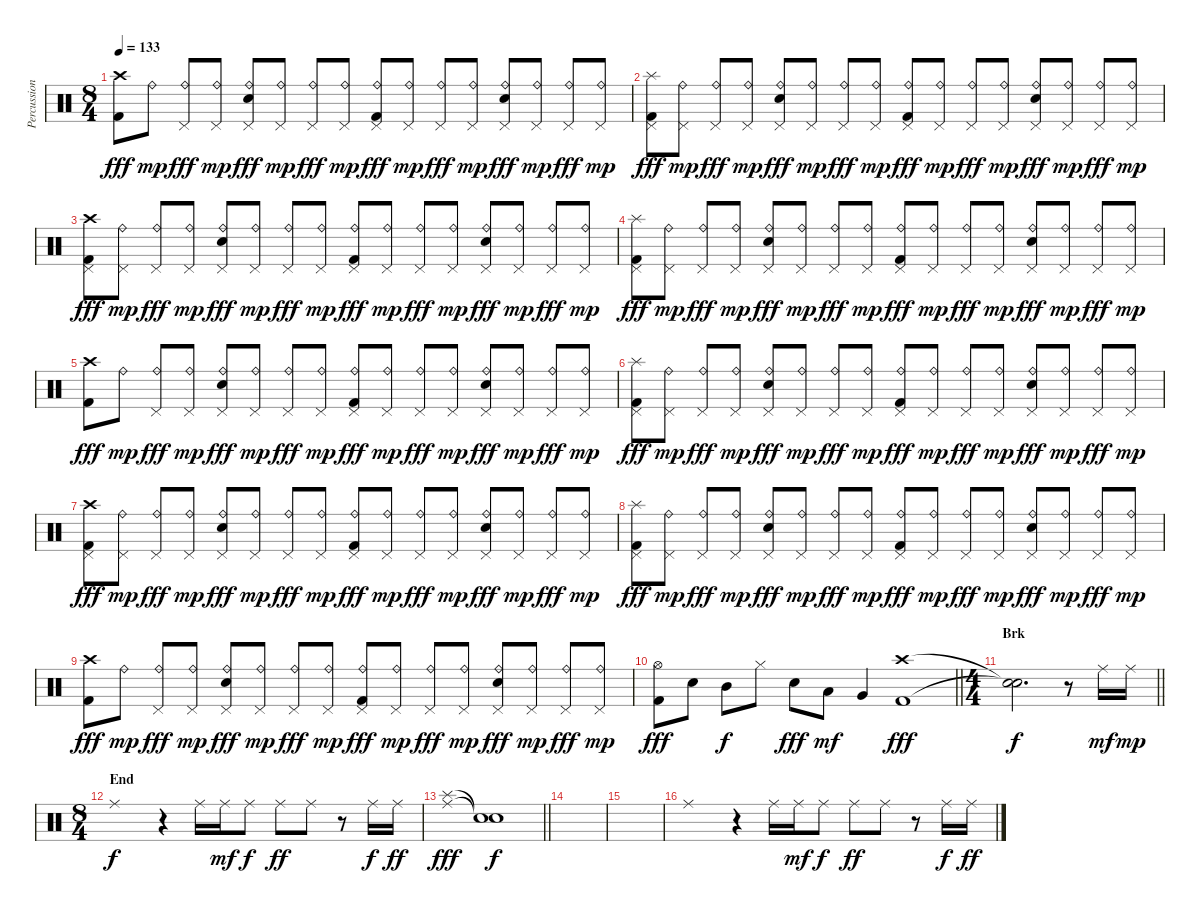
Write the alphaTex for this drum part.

\track ("Percussion" "Percussion") {instrument percussion}
\staff {score}
\articulation defaults
\ts (8 4)
\tempo 133
\clef neutral
\ks c
("Crash high (hit)" "Kick (hit) 2").8{dy fff} "Ride (bell)".8{dy mp} ("Ride (bell)" "Pedal Hi-Hat (hit)").8{dy fff} ("Ride (bell)" "Pedal Hi-Hat (hit)").8{dy mp} ("Ride (bell)" "Pedal Hi-Hat (hit)" "Electric Snare (hit)").8{dy fff} ("Ride (bell)" "Pedal Hi-Hat (hit)").8{dy mp} ("Ride (bell)" "Pedal Hi-Hat (hit)").8{dy fff} ("Ride (bell)" "Pedal Hi-Hat (hit)").8{dy mp} ("Ride (bell)" "Pedal Hi-Hat (hit)" "Kick (hit) 2").8{dy fff} ("Ride (bell)" "Pedal Hi-Hat (hit)").8{dy mp} ("Ride (bell)" "Pedal Hi-Hat (hit)").8{dy fff} ("Ride (bell)" "Pedal Hi-Hat (hit)").8{dy mp} ("Ride (bell)" "Pedal Hi-Hat (hit)" "Electric Snare (hit)").8{dy fff} ("Ride (bell)" "Pedal Hi-Hat (hit)").8{dy mp} ("Ride (bell)" "Pedal Hi-Hat (hit)").8{dy fff} ("Ride (bell)" "Pedal Hi-Hat (hit)").8{dy mp} |
("Splash (hit)" "Pedal Hi-Hat (hit)" "Kick (hit) 2").8{dy fff} ("Ride (bell)" "Pedal Hi-Hat (hit)").8{dy mp} ("Ride (bell)" "Pedal Hi-Hat (hit)").8{dy fff} ("Ride (bell)" "Pedal Hi-Hat (hit)").8{dy mp} ("Ride (bell)" "Pedal Hi-Hat (hit)" "Electric Snare (hit)").8{dy fff} ("Ride (bell)" "Pedal Hi-Hat (hit)").8{dy mp} ("Ride (bell)" "Pedal Hi-Hat (hit)").8{dy fff} ("Ride (bell)" "Pedal Hi-Hat (hit)").8{dy mp} ("Ride (bell)" "Pedal Hi-Hat (hit)" "Kick (hit) 2").8{dy fff} ("Ride (bell)" "Pedal Hi-Hat (hit)").8{dy mp} ("Ride (bell)" "Pedal Hi-Hat (hit)").8{dy fff} ("Ride (bell)" "Pedal Hi-Hat (hit)").8{dy mp} ("Ride (bell)" "Pedal Hi-Hat (hit)" "Electric Snare (hit)").8{dy fff} ("Ride (bell)" "Pedal Hi-Hat (hit)").8{dy mp} ("Ride (bell)" "Pedal Hi-Hat (hit)").8{dy fff} ("Ride (bell)" "Pedal Hi-Hat (hit)").8{dy mp} |
("Crash high (hit)" "Pedal Hi-Hat (hit)" "Kick (hit) 2").8{dy fff} ("Ride (bell)" "Pedal Hi-Hat (hit)").8{dy mp} ("Ride (bell)" "Pedal Hi-Hat (hit)").8{dy fff} ("Ride (bell)" "Pedal Hi-Hat (hit)").8{dy mp} ("Ride (bell)" "Pedal Hi-Hat (hit)" "Electric Snare (hit)").8{dy fff} ("Ride (bell)" "Pedal Hi-Hat (hit)").8{dy mp} ("Ride (bell)" "Pedal Hi-Hat (hit)").8{dy fff} ("Ride (bell)" "Pedal Hi-Hat (hit)").8{dy mp} ("Ride (bell)" "Pedal Hi-Hat (hit)" "Kick (hit) 2").8{dy fff} ("Ride (bell)" "Pedal Hi-Hat (hit)").8{dy mp} ("Ride (bell)" "Pedal Hi-Hat (hit)").8{dy fff} ("Ride (bell)" "Pedal Hi-Hat (hit)").8{dy mp} ("Ride (bell)" "Pedal Hi-Hat (hit)" "Electric Snare (hit)").8{dy fff} ("Ride (bell)" "Pedal Hi-Hat (hit)").8{dy mp} ("Ride (bell)" "Pedal Hi-Hat (hit)").8{dy fff} ("Ride (bell)" "Pedal Hi-Hat (hit)").8{dy mp} |
("Splash (hit)" "Pedal Hi-Hat (hit)" "Kick (hit) 2").8{dy fff} ("Ride (bell)" "Pedal Hi-Hat (hit)").8{dy mp} ("Ride (bell)" "Pedal Hi-Hat (hit)").8{dy fff} ("Ride (bell)" "Pedal Hi-Hat (hit)").8{dy mp} ("Ride (bell)" "Pedal Hi-Hat (hit)" "Electric Snare (hit)").8{dy fff} ("Ride (bell)" "Pedal Hi-Hat (hit)").8{dy mp} ("Ride (bell)" "Pedal Hi-Hat (hit)").8{dy fff} ("Ride (bell)" "Pedal Hi-Hat (hit)").8{dy mp} ("Ride (bell)" "Pedal Hi-Hat (hit)" "Kick (hit) 2").8{dy fff} ("Ride (bell)" "Pedal Hi-Hat (hit)").8{dy mp} ("Ride (bell)" "Pedal Hi-Hat (hit)").8{dy fff} ("Ride (bell)" "Pedal Hi-Hat (hit)").8{dy mp} ("Ride (bell)" "Pedal Hi-Hat (hit)" "Electric Snare (hit)").8{dy fff} ("Ride (bell)" "Pedal Hi-Hat (hit)").8{dy mp} ("Ride (bell)" "Pedal Hi-Hat (hit)").8{dy fff} ("Ride (bell)" "Pedal Hi-Hat (hit)").8{dy mp} |
("Crash high (hit)" "Kick (hit) 2").8{dy fff} "Ride (bell)".8{dy mp} ("Ride (bell)" "Pedal Hi-Hat (hit)").8{dy fff} ("Ride (bell)" "Pedal Hi-Hat (hit)").8{dy mp} ("Ride (bell)" "Pedal Hi-Hat (hit)" "Electric Snare (hit)").8{dy fff} ("Ride (bell)" "Pedal Hi-Hat (hit)").8{dy mp} ("Ride (bell)" "Pedal Hi-Hat (hit)").8{dy fff} ("Ride (bell)" "Pedal Hi-Hat (hit)").8{dy mp} ("Ride (bell)" "Pedal Hi-Hat (hit)" "Kick (hit) 2").8{dy fff} ("Ride (bell)" "Pedal Hi-Hat (hit)").8{dy mp} ("Ride (bell)" "Pedal Hi-Hat (hit)").8{dy fff} ("Ride (bell)" "Pedal Hi-Hat (hit)").8{dy mp} ("Ride (bell)" "Pedal Hi-Hat (hit)" "Electric Snare (hit)").8{dy fff} ("Ride (bell)" "Pedal Hi-Hat (hit)").8{dy mp} ("Ride (bell)" "Pedal Hi-Hat (hit)").8{dy fff} ("Ride (bell)" "Pedal Hi-Hat (hit)").8{dy mp} |
("Splash (hit)" "Pedal Hi-Hat (hit)" "Kick (hit) 2").8{dy fff} ("Ride (bell)" "Pedal Hi-Hat (hit)").8{dy mp} ("Ride (bell)" "Pedal Hi-Hat (hit)").8{dy fff} ("Ride (bell)" "Pedal Hi-Hat (hit)").8{dy mp} ("Ride (bell)" "Pedal Hi-Hat (hit)" "Electric Snare (hit)").8{dy fff} ("Ride (bell)" "Pedal Hi-Hat (hit)").8{dy mp} ("Ride (bell)" "Pedal Hi-Hat (hit)").8{dy fff} ("Ride (bell)" "Pedal Hi-Hat (hit)").8{dy mp} ("Ride (bell)" "Pedal Hi-Hat (hit)" "Kick (hit) 2").8{dy fff} ("Ride (bell)" "Pedal Hi-Hat (hit)").8{dy mp} ("Ride (bell)" "Pedal Hi-Hat (hit)").8{dy fff} ("Ride (bell)" "Pedal Hi-Hat (hit)").8{dy mp} ("Ride (bell)" "Pedal Hi-Hat (hit)" "Electric Snare (hit)").8{dy fff} ("Ride (bell)" "Pedal Hi-Hat (hit)").8{dy mp} ("Ride (bell)" "Pedal Hi-Hat (hit)").8{dy fff} ("Ride (bell)" "Pedal Hi-Hat (hit)").8{dy mp} |
("Crash high (hit)" "Pedal Hi-Hat (hit)" "Kick (hit) 2").8{dy fff} ("Ride (bell)" "Pedal Hi-Hat (hit)").8{dy mp} ("Ride (bell)" "Pedal Hi-Hat (hit)").8{dy fff} ("Ride (bell)" "Pedal Hi-Hat (hit)").8{dy mp} ("Ride (bell)" "Pedal Hi-Hat (hit)" "Electric Snare (hit)").8{dy fff} ("Ride (bell)" "Pedal Hi-Hat (hit)").8{dy mp} ("Ride (bell)" "Pedal Hi-Hat (hit)").8{dy fff} ("Ride (bell)" "Pedal Hi-Hat (hit)").8{dy mp} ("Ride (bell)" "Pedal Hi-Hat (hit)" "Kick (hit) 2").8{dy fff} ("Ride (bell)" "Pedal Hi-Hat (hit)").8{dy mp} ("Ride (bell)" "Pedal Hi-Hat (hit)").8{dy fff} ("Ride (bell)" "Pedal Hi-Hat (hit)").8{dy mp} ("Ride (bell)" "Pedal Hi-Hat (hit)" "Electric Snare (hit)").8{dy fff} ("Ride (bell)" "Pedal Hi-Hat (hit)").8{dy mp} ("Ride (bell)" "Pedal Hi-Hat (hit)").8{dy fff} ("Ride (bell)" "Pedal Hi-Hat (hit)").8{dy mp} |
("Splash (hit)" "Pedal Hi-Hat (hit)" "Kick (hit) 2").8{dy fff} ("Ride (bell)" "Pedal Hi-Hat (hit)").8{dy mp} ("Ride (bell)" "Pedal Hi-Hat (hit)").8{dy fff} ("Ride (bell)" "Pedal Hi-Hat (hit)").8{dy mp} ("Ride (bell)" "Pedal Hi-Hat (hit)" "Electric Snare (hit)").8{dy fff} ("Ride (bell)" "Pedal Hi-Hat (hit)").8{dy mp} ("Ride (bell)" "Pedal Hi-Hat (hit)").8{dy fff} ("Ride (bell)" "Pedal Hi-Hat (hit)").8{dy mp} ("Ride (bell)" "Pedal Hi-Hat (hit)" "Kick (hit) 2").8{dy fff} ("Ride (bell)" "Pedal Hi-Hat (hit)").8{dy mp} ("Ride (bell)" "Pedal Hi-Hat (hit)").8{dy fff} ("Ride (bell)" "Pedal Hi-Hat (hit)").8{dy mp} ("Ride (bell)" "Pedal Hi-Hat (hit)" "Electric Snare (hit)").8{dy fff} ("Ride (bell)" "Pedal Hi-Hat (hit)").8{dy mp} ("Ride (bell)" "Pedal Hi-Hat (hit)").8{dy fff} ("Ride (bell)" "Pedal Hi-Hat (hit)").8{dy mp} |
("Crash high (hit)" "Kick (hit) 2").8{dy fff} "Ride (bell)".8{dy mp} ("Ride (bell)" "Pedal Hi-Hat (hit)").8{dy fff} ("Ride (bell)" "Pedal Hi-Hat (hit)").8{dy mp} ("Ride (bell)" "Pedal Hi-Hat (hit)" "Electric Snare (hit)").8{dy fff} ("Ride (bell)" "Pedal Hi-Hat (hit)").8{dy mp} ("Ride (bell)" "Pedal Hi-Hat (hit)").8{dy fff} ("Ride (bell)" "Pedal Hi-Hat (hit)").8{dy mp} ("Ride (bell)" "Pedal Hi-Hat (hit)" "Kick (hit) 2").8{dy fff} ("Ride (bell)" "Pedal Hi-Hat (hit)").8{dy mp} ("Ride (bell)" "Pedal Hi-Hat (hit)").8{dy fff} ("Ride (bell)" "Pedal Hi-Hat (hit)").8{dy mp} ("Ride (bell)" "Pedal Hi-Hat (hit)" "Electric Snare (hit)").8{dy fff} ("Ride (bell)" "Pedal Hi-Hat (hit)").8{dy mp} ("Ride (bell)" "Pedal Hi-Hat (hit)").8{dy fff} ("Ride (bell)" "Pedal Hi-Hat (hit)").8{dy mp} |
\barLineRight lightlight
("Hi-Hat (open)" "Kick (hit) 2").8{dy fff} "Electric Snare (hit)".8 "Mid Tom (hit)".8{dy f} "Hi-Hat (closed)".8 "Electric Snare (hit)".8{dy fff} "Low Tom (hit)".8{dy mf} "Very Low Tom (hit)".4 ("Crash high (hit)" "Kick (hit) 2").1{dy fff} |
\ts (4 4)
\section ("" "Brk")
\barLineRight lightlight
("Snare (hit)"{t} "Snare (hit)"{t}).2{d dy f} r.8 "Ride (middle)".16{dy mf} "Ride (middle)".16{dy mp} |
\ts (8 4)
\section ("" "End")
"Ride (middle)".1{dy f} r.4 "Ride (middle)".16 "Ride (middle)".16{dy mf} "Ride (middle)".8{dy f} "Ride (middle)".8{dy ff} "Ride (middle)".8 r.8 "Ride (middle)".16{dy f} "Ride (middle)".16{dy ff} |
\barLineRight lightlight
("Ride (middle)" "Splash (hit)").1{dy fff} ("Snare (hit)"{t} "Snare (hit)"{t}).1{dy f} |
|
|
"Ride (middle)".1 r.4 "Ride (middle)".16 "Ride (middle)".16{dy mf} "Ride (middle)".8{dy f} "Ride (middle)".8{dy ff} "Ride (middle)".8 r.8 "Ride (middle)".16{dy f} "Ride (middle)".16{dy ff}
